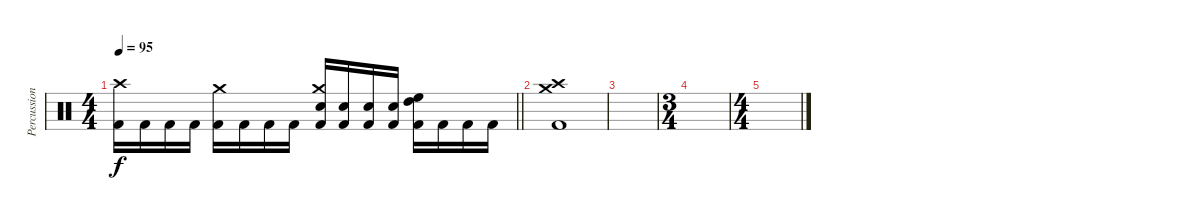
\track ("Percussion" "Percussion") {instrument percussion}
\staff {score}
\articulation defaults
\ts (4 4)
\tempo 95
\clef neutral
\barLineRight lightlight
\ks c
("Crash high (hit)" "Kick (hit) 2").16{dy f} "Kick (hit) 2".16 "Kick (hit) 2".16 "Kick (hit) 2".16 ("Crash medium (hit)" "Kick (hit) 2").16 "Kick (hit) 2".16 "Kick (hit) 2".16 "Kick (hit) 2".16 ("Crash medium (hit)" "Electric Snare (hit)" "Kick (hit) 2").16 ("Electric Snare (hit)" "Kick (hit) 2").16 ("Electric Snare (hit)" "Kick (hit) 2").16 ("Electric Snare (hit)" "Kick (hit) 2").16 ("High Tom (hit)" "High Floor Tom (hit)" "Kick (hit) 2").16 "Kick (hit) 2".16 "Kick (hit) 2".16 "Kick (hit) 2".16 |
("Crash high (hit)" "Crash medium (hit)" "Kick (hit) 2").1 |
|
\ts (3 4)
|
\ts (4 4)
